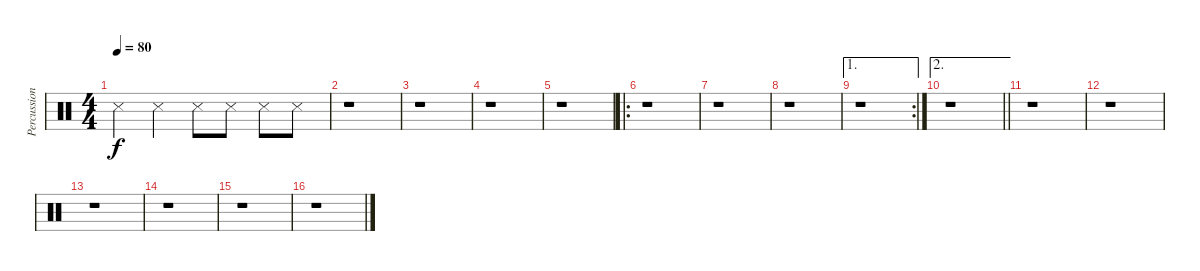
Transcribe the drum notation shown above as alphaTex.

\track ("Percussion" "Percussion") {instrument percussion}
\staff {score}
\articulation defaults
\ts (4 4)
\tempo 80
\clef neutral
\ks c "Metronome (hit)".4{dy f} "Metronome (hit)".4 "Metronome (hit)".8 "Metronome (hit)".8 "Metronome (hit)".8 "Metronome (hit)".8
|
r.1 |
r.1 |
r.1 |
r.1 |
\ro
r.1 |
r.1 |
r.1 |
\ae 1
\rc 2
r.1 |
\ae 2
\barLineRight lightlight
r.1 |
r.1 |
r.1 |
r.1 |
r.1 |
r.1 |
r.1
